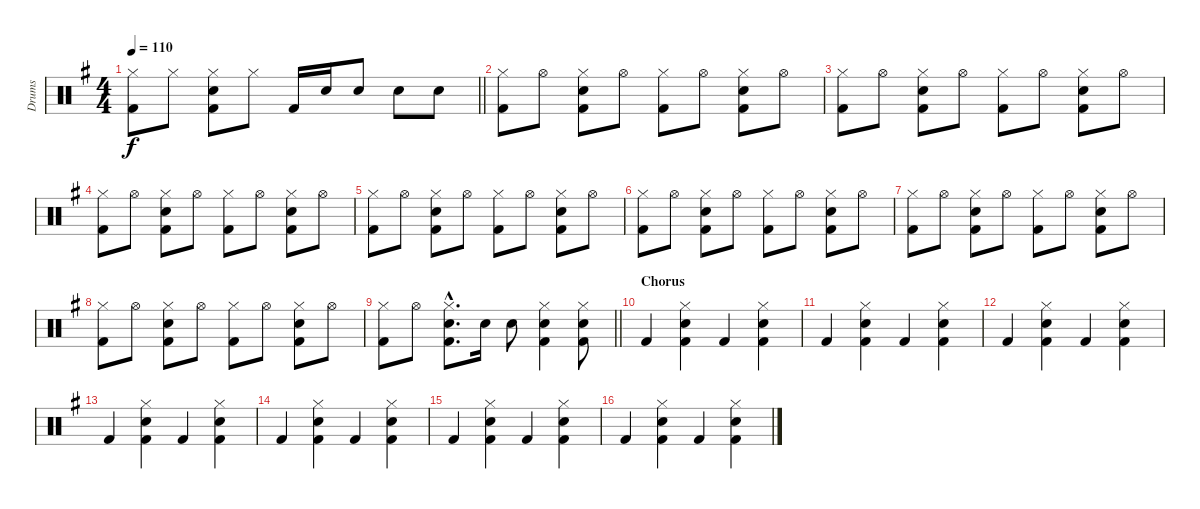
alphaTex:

\track ("Drums" "Drums") {instrument percussion}
\staff {score}
\articulation defaults
\ts (4 4)
\tempo 110
\clef neutral
\barLineRight lightlight
\ks g
("Hi-Hat (closed)" "Kick (hit) 2").8{dy f} "Hi-Hat (closed)".8 ("Hi-Hat (closed)" "Snare (hit) 2" "Kick (hit) 2").8 "Hi-Hat (closed)".8 "Kick (hit) 2".16 "Snare (hit) 2".16 "Snare (hit) 2".8 "Snare (hit) 2".8 "Snare (hit) 2".8 |
("Hi-Hat (closed)" "Kick (hit) 2").8 "Hi-Hat (open)".8 ("Hi-Hat (closed)" "Snare (hit) 2" "Kick (hit) 2").8 "Hi-Hat (open)".8 ("Hi-Hat (closed)" "Kick (hit) 2").8 "Hi-Hat (open)".8 ("Hi-Hat (closed)" "Snare (hit) 2" "Kick (hit) 2").8 "Hi-Hat (open)".8 |
("Hi-Hat (closed)" "Kick (hit) 2").8 "Hi-Hat (open)".8 ("Hi-Hat (closed)" "Snare (hit) 2" "Kick (hit) 2").8 "Hi-Hat (open)".8 ("Hi-Hat (closed)" "Kick (hit) 2").8 "Hi-Hat (open)".8 ("Hi-Hat (closed)" "Snare (hit) 2" "Kick (hit) 2").8 "Hi-Hat (open)".8 |
("Hi-Hat (closed)" "Kick (hit) 2").8 "Hi-Hat (open)".8 ("Hi-Hat (closed)" "Snare (hit) 2" "Kick (hit) 2").8 "Hi-Hat (open)".8 ("Hi-Hat (closed)" "Kick (hit) 2").8 "Hi-Hat (open)".8 ("Hi-Hat (closed)" "Snare (hit) 2" "Kick (hit) 2").8 "Hi-Hat (open)".8 |
("Hi-Hat (closed)" "Kick (hit) 2").8 "Hi-Hat (open)".8 ("Hi-Hat (closed)" "Snare (hit) 2" "Kick (hit) 2").8 "Hi-Hat (open)".8 ("Hi-Hat (closed)" "Kick (hit) 2").8 "Hi-Hat (open)".8 ("Hi-Hat (closed)" "Snare (hit) 2" "Kick (hit) 2").8 "Hi-Hat (open)".8 |
("Hi-Hat (closed)" "Kick (hit) 2").8 "Hi-Hat (open)".8 ("Hi-Hat (closed)" "Snare (hit) 2" "Kick (hit) 2").8 "Hi-Hat (open)".8 ("Hi-Hat (closed)" "Kick (hit) 2").8 "Hi-Hat (open)".8 ("Hi-Hat (closed)" "Snare (hit) 2" "Kick (hit) 2").8 "Hi-Hat (open)".8 |
("Hi-Hat (closed)" "Kick (hit) 2").8 "Hi-Hat (open)".8 ("Hi-Hat (closed)" "Snare (hit) 2" "Kick (hit) 2").8 "Hi-Hat (open)".8 ("Hi-Hat (closed)" "Kick (hit) 2").8 "Hi-Hat (open)".8 ("Hi-Hat (closed)" "Snare (hit) 2" "Kick (hit) 2").8 "Hi-Hat (open)".8 |
("Hi-Hat (closed)" "Kick (hit) 2").8 "Hi-Hat (open)".8 ("Hi-Hat (closed)" "Snare (hit) 2" "Kick (hit) 2").8 "Hi-Hat (open)".8 ("Hi-Hat (closed)" "Kick (hit) 2").8 "Hi-Hat (open)".8 ("Hi-Hat (closed)" "Snare (hit) 2" "Kick (hit) 2").8 "Hi-Hat (open)".8 |
\barLineRight lightlight
("Hi-Hat (closed)" "Kick (hit) 2").8 "Hi-Hat (open)".8 ("Hi-Hat (closed)"{hac} "Snare (hit) 2"{hac} "Kick (hit) 2"{hac}).8{d} "Snare (hit) 2".16 "Snare (hit) 2".8 ("Hi-Hat (closed)" "Snare (hit) 2" "Kick (hit) 2").4 ("Hi-Hat (closed)" "Snare (hit) 2" "Kick (hit) 2").8 |
\section ("" "Chorus")
"Kick (hit) 2".4 ("Hi-Hat (closed)" "Snare (hit) 2" "Kick (hit) 2").4 "Kick (hit) 2".4 ("Hi-Hat (closed)" "Snare (hit) 2" "Kick (hit) 2").4 |
"Kick (hit) 2".4 ("Hi-Hat (closed)" "Snare (hit) 2" "Kick (hit) 2").4 "Kick (hit) 2".4 ("Hi-Hat (closed)" "Snare (hit) 2" "Kick (hit) 2").4 |
"Kick (hit) 2".4 ("Hi-Hat (closed)" "Snare (hit) 2" "Kick (hit) 2").4 "Kick (hit) 2".4 ("Hi-Hat (closed)" "Snare (hit) 2" "Kick (hit) 2").4 |
"Kick (hit) 2".4 ("Hi-Hat (closed)" "Snare (hit) 2" "Kick (hit) 2").4 "Kick (hit) 2".4 ("Hi-Hat (closed)" "Snare (hit) 2" "Kick (hit) 2").4 |
"Kick (hit) 2".4 ("Hi-Hat (closed)" "Snare (hit) 2" "Kick (hit) 2").4 "Kick (hit) 2".4 ("Hi-Hat (closed)" "Snare (hit) 2" "Kick (hit) 2").4 |
"Kick (hit) 2".4 ("Hi-Hat (closed)" "Snare (hit) 2" "Kick (hit) 2").4 "Kick (hit) 2".4 ("Hi-Hat (closed)" "Snare (hit) 2" "Kick (hit) 2").4 |
"Kick (hit) 2".4 ("Hi-Hat (closed)" "Snare (hit) 2" "Kick (hit) 2").4 "Kick (hit) 2".4 ("Hi-Hat (closed)" "Snare (hit) 2" "Kick (hit) 2").4
